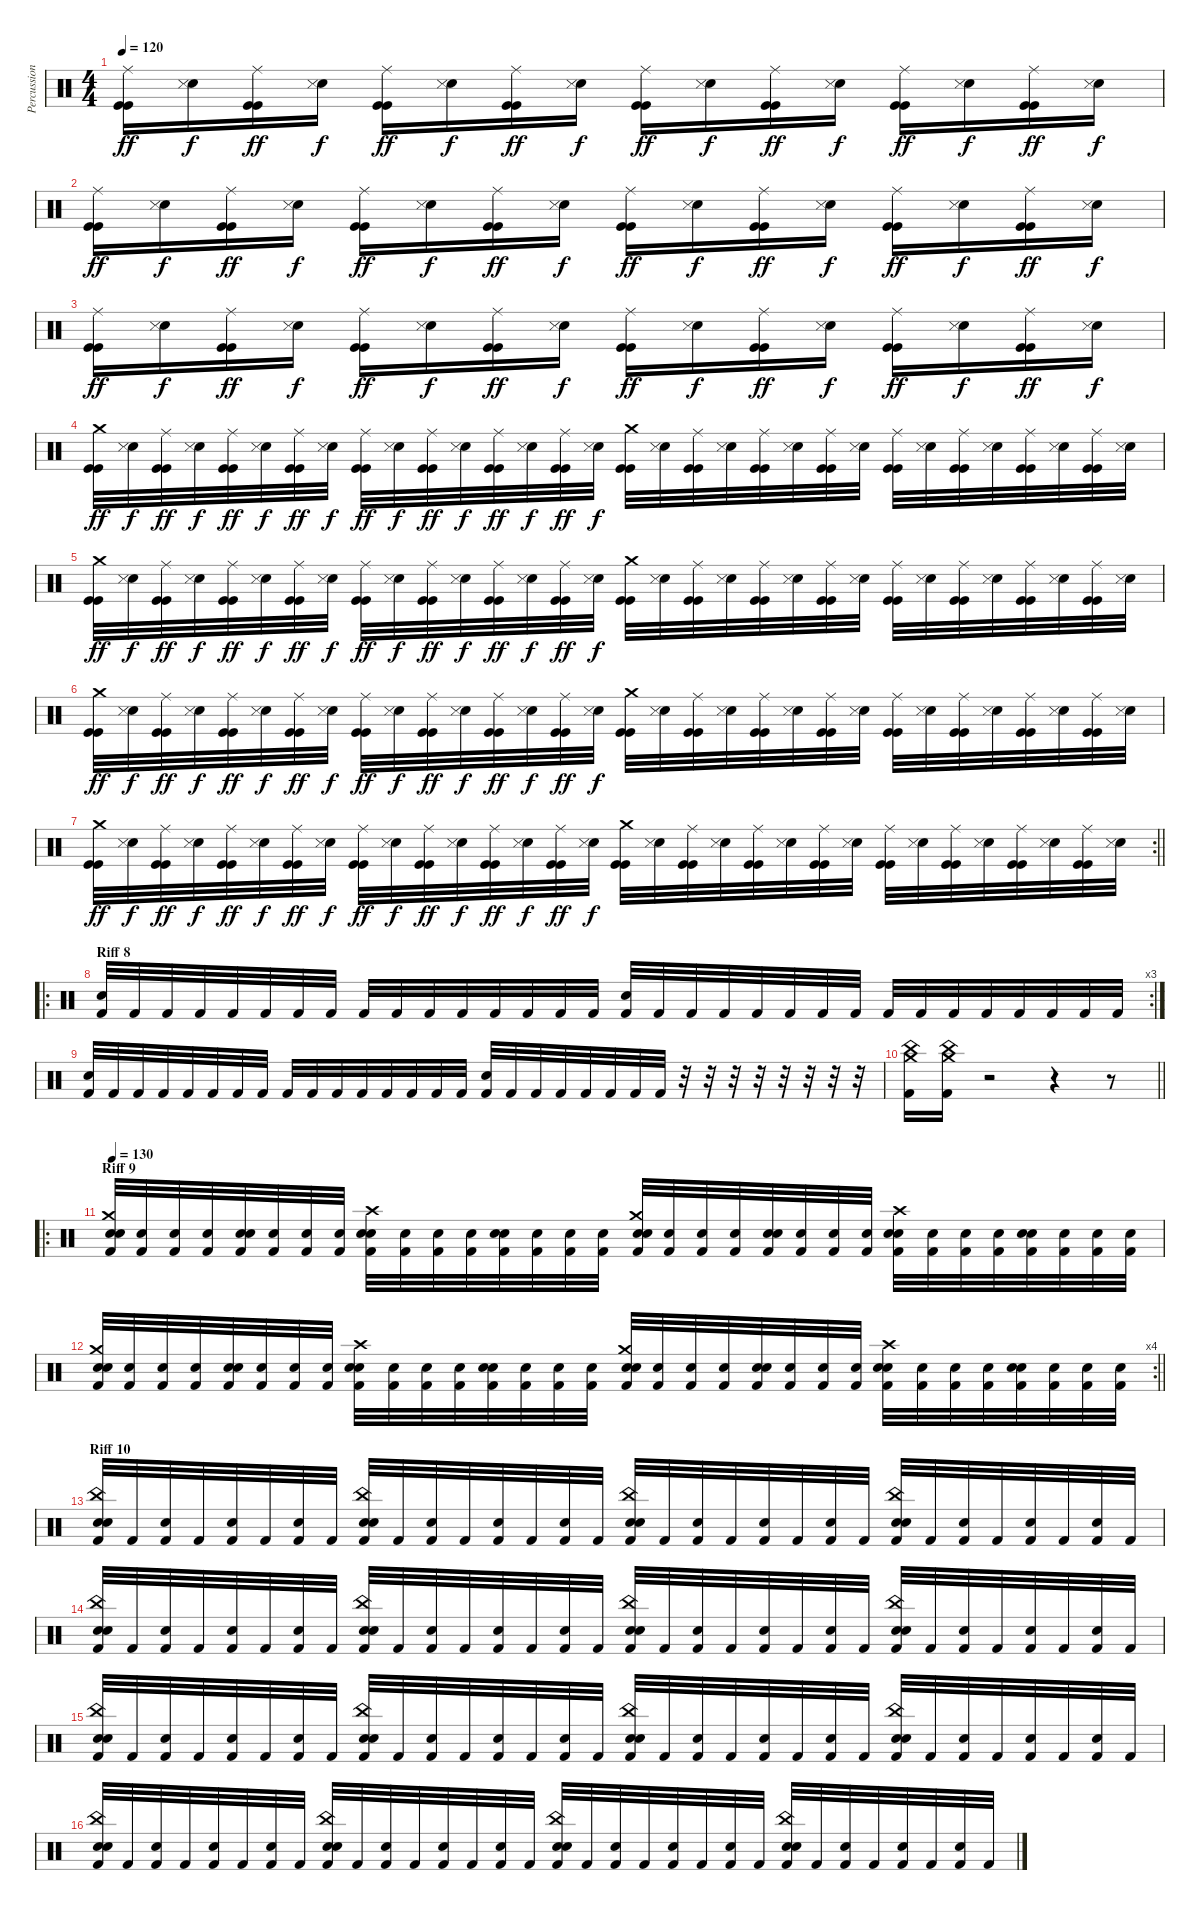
\track ("Percussions" "Percussion") {instrument percussion}
\staff {score}
\articulation defaults
\ts (4 4)
\tempo 120
\clef neutral
\ks c
("Ride (middle)" "Kick (hit)" "Kick (hit)").16{dy ff} ("Electric Snare (hit)" "Snare (side stick) 3").16{dy f} ("Ride (middle)" "Kick (hit)" "Kick (hit)").16{dy ff} ("Electric Snare (hit)" "Snare (side stick) 3").16{dy f} ("Ride (middle)" "Kick (hit)" "Kick (hit)").16{dy ff} ("Electric Snare (hit)" "Snare (side stick) 3").16{dy f} ("Ride (middle)" "Kick (hit)" "Kick (hit)").16{dy ff} ("Electric Snare (hit)" "Snare (side stick) 3").16{dy f} ("Ride (middle)" "Kick (hit)" "Kick (hit)").16{dy ff} ("Electric Snare (hit)" "Snare (side stick) 3").16{dy f} ("Ride (middle)" "Kick (hit)" "Kick (hit)").16{dy ff} ("Electric Snare (hit)" "Snare (side stick) 3").16{dy f} ("Ride (middle)" "Kick (hit)" "Kick (hit)").16{dy ff} ("Electric Snare (hit)" "Snare (side stick) 3").16{dy f} ("Ride (middle)" "Kick (hit)" "Kick (hit)").16{dy ff} ("Electric Snare (hit)" "Snare (side stick) 3").16{dy f} |
("Ride (middle)" "Kick (hit)" "Kick (hit)").16{dy ff} ("Electric Snare (hit)" "Snare (side stick) 3").16{dy f} ("Ride (middle)" "Kick (hit)" "Kick (hit)").16{dy ff} ("Electric Snare (hit)" "Snare (side stick) 3").16{dy f} ("Ride (middle)" "Kick (hit)" "Kick (hit)").16{dy ff} ("Electric Snare (hit)" "Snare (side stick) 3").16{dy f} ("Ride (middle)" "Kick (hit)" "Kick (hit)").16{dy ff} ("Electric Snare (hit)" "Snare (side stick) 3").16{dy f} ("Ride (middle)" "Kick (hit)" "Kick (hit)").16{dy ff} ("Electric Snare (hit)" "Snare (side stick) 3").16{dy f} ("Ride (middle)" "Kick (hit)" "Kick (hit)").16{dy ff} ("Electric Snare (hit)" "Snare (side stick) 3").16{dy f} ("Ride (middle)" "Kick (hit)" "Kick (hit)").16{dy ff} ("Electric Snare (hit)" "Snare (side stick) 3").16{dy f} ("Ride (middle)" "Kick (hit)" "Kick (hit)").16{dy ff} ("Electric Snare (hit)" "Snare (side stick) 3").16{dy f} |
("Ride (middle)" "Kick (hit)" "Kick (hit)").16{dy ff} ("Electric Snare (hit)" "Snare (side stick) 3").16{dy f} ("Ride (middle)" "Kick (hit)" "Kick (hit)").16{dy ff} ("Electric Snare (hit)" "Snare (side stick) 3").16{dy f} ("Ride (middle)" "Kick (hit)" "Kick (hit)").16{dy ff} ("Electric Snare (hit)" "Snare (side stick) 3").16{dy f} ("Ride (middle)" "Kick (hit)" "Kick (hit)").16{dy ff} ("Electric Snare (hit)" "Snare (side stick) 3").16{dy f} ("Ride (middle)" "Kick (hit)" "Kick (hit)").16{dy ff} ("Electric Snare (hit)" "Snare (side stick) 3").16{dy f} ("Ride (middle)" "Kick (hit)" "Kick (hit)").16{dy ff} ("Electric Snare (hit)" "Snare (side stick) 3").16{dy f} ("Ride (middle)" "Kick (hit)" "Kick (hit)").16{dy ff} ("Electric Snare (hit)" "Snare (side stick) 3").16{dy f} ("Ride (middle)" "Kick (hit)" "Kick (hit)").16{dy ff} ("Electric Snare (hit)" "Snare (side stick) 3").16{dy f} |
("Crash medium (hit)" "Kick (hit)" "Kick (hit)").32{dy ff} ("Electric Snare (hit)" "Snare (side stick) 3").32{dy f} ("Ride (middle)" "Kick (hit)" "Kick (hit)").32{dy ff} ("Electric Snare (hit)" "Snare (side stick) 3").32{dy f} ("Ride (middle)" "Kick (hit)" "Kick (hit)").32{dy ff} ("Electric Snare (hit)" "Snare (side stick) 3").32{dy f} ("Ride (middle)" "Kick (hit)" "Kick (hit)").32{dy ff} ("Electric Snare (hit)" "Snare (side stick) 3").32{dy f} ("Ride (middle)" "Kick (hit)" "Kick (hit)").32{dy ff} ("Electric Snare (hit)" "Snare (side stick) 3").32{dy f} ("Ride (middle)" "Kick (hit)" "Kick (hit)").32{dy ff} ("Electric Snare (hit)" "Snare (side stick) 3").32{dy f} ("Ride (middle)" "Kick (hit)" "Kick (hit)").32{dy ff} ("Electric Snare (hit)" "Snare (side stick) 3").32{dy f} ("Ride (middle)" "Kick (hit)" "Kick (hit)").32{dy ff} ("Electric Snare (hit)" "Snare (side stick) 3").32{dy f} ("Crash medium (hit)" "Kick (hit)" "Kick (hit)").32 ("Electric Snare (hit)" "Snare (side stick) 3").32 ("Ride (middle)" "Kick (hit)" "Kick (hit)").32 ("Electric Snare (hit)" "Snare (side stick) 3").32 ("Ride (middle)" "Kick (hit)" "Kick (hit)").32 ("Electric Snare (hit)" "Snare (side stick) 3").32 ("Ride (middle)" "Kick (hit)" "Kick (hit)").32 ("Electric Snare (hit)" "Snare (side stick) 3").32 ("Ride (middle)" "Kick (hit)" "Kick (hit)").32 ("Electric Snare (hit)" "Snare (side stick) 3").32 ("Ride (middle)" "Kick (hit)" "Kick (hit)").32 ("Electric Snare (hit)" "Snare (side stick) 3").32 ("Ride (middle)" "Kick (hit)" "Kick (hit)").32 ("Electric Snare (hit)" "Snare (side stick) 3").32 ("Ride (middle)" "Kick (hit)" "Kick (hit)").32 ("Electric Snare (hit)" "Snare (side stick) 3").32 |
("Crash medium (hit)" "Kick (hit)" "Kick (hit)").32{dy ff} ("Electric Snare (hit)" "Snare (side stick) 3").32{dy f} ("Ride (middle)" "Kick (hit)" "Kick (hit)").32{dy ff} ("Electric Snare (hit)" "Snare (side stick) 3").32{dy f} ("Ride (middle)" "Kick (hit)" "Kick (hit)").32{dy ff} ("Electric Snare (hit)" "Snare (side stick) 3").32{dy f} ("Ride (middle)" "Kick (hit)" "Kick (hit)").32{dy ff} ("Electric Snare (hit)" "Snare (side stick) 3").32{dy f} ("Ride (middle)" "Kick (hit)" "Kick (hit)").32{dy ff} ("Electric Snare (hit)" "Snare (side stick) 3").32{dy f} ("Ride (middle)" "Kick (hit)" "Kick (hit)").32{dy ff} ("Electric Snare (hit)" "Snare (side stick) 3").32{dy f} ("Ride (middle)" "Kick (hit)" "Kick (hit)").32{dy ff} ("Electric Snare (hit)" "Snare (side stick) 3").32{dy f} ("Ride (middle)" "Kick (hit)" "Kick (hit)").32{dy ff} ("Electric Snare (hit)" "Snare (side stick) 3").32{dy f} ("Crash medium (hit)" "Kick (hit)" "Kick (hit)").32 ("Electric Snare (hit)" "Snare (side stick) 3").32 ("Ride (middle)" "Kick (hit)" "Kick (hit)").32 ("Electric Snare (hit)" "Snare (side stick) 3").32 ("Ride (middle)" "Kick (hit)" "Kick (hit)").32 ("Electric Snare (hit)" "Snare (side stick) 3").32 ("Ride (middle)" "Kick (hit)" "Kick (hit)").32 ("Electric Snare (hit)" "Snare (side stick) 3").32 ("Ride (middle)" "Kick (hit)" "Kick (hit)").32 ("Electric Snare (hit)" "Snare (side stick) 3").32 ("Ride (middle)" "Kick (hit)" "Kick (hit)").32 ("Electric Snare (hit)" "Snare (side stick) 3").32 ("Ride (middle)" "Kick (hit)" "Kick (hit)").32 ("Electric Snare (hit)" "Snare (side stick) 3").32 ("Ride (middle)" "Kick (hit)" "Kick (hit)").32 ("Electric Snare (hit)" "Snare (side stick) 3").32 |
("Crash medium (hit)" "Kick (hit)" "Kick (hit)").32{dy ff} ("Electric Snare (hit)" "Snare (side stick) 3").32{dy f} ("Ride (middle)" "Kick (hit)" "Kick (hit)").32{dy ff} ("Electric Snare (hit)" "Snare (side stick) 3").32{dy f} ("Ride (middle)" "Kick (hit)" "Kick (hit)").32{dy ff} ("Electric Snare (hit)" "Snare (side stick) 3").32{dy f} ("Ride (middle)" "Kick (hit)" "Kick (hit)").32{dy ff} ("Electric Snare (hit)" "Snare (side stick) 3").32{dy f} ("Ride (middle)" "Kick (hit)" "Kick (hit)").32{dy ff} ("Electric Snare (hit)" "Snare (side stick) 3").32{dy f} ("Ride (middle)" "Kick (hit)" "Kick (hit)").32{dy ff} ("Electric Snare (hit)" "Snare (side stick) 3").32{dy f} ("Ride (middle)" "Kick (hit)" "Kick (hit)").32{dy ff} ("Electric Snare (hit)" "Snare (side stick) 3").32{dy f} ("Ride (middle)" "Kick (hit)" "Kick (hit)").32{dy ff} ("Electric Snare (hit)" "Snare (side stick) 3").32{dy f} ("Crash medium (hit)" "Kick (hit)" "Kick (hit)").32 ("Electric Snare (hit)" "Snare (side stick) 3").32 ("Ride (middle)" "Kick (hit)" "Kick (hit)").32 ("Electric Snare (hit)" "Snare (side stick) 3").32 ("Ride (middle)" "Kick (hit)" "Kick (hit)").32 ("Electric Snare (hit)" "Snare (side stick) 3").32 ("Ride (middle)" "Kick (hit)" "Kick (hit)").32 ("Electric Snare (hit)" "Snare (side stick) 3").32 ("Ride (middle)" "Kick (hit)" "Kick (hit)").32 ("Electric Snare (hit)" "Snare (side stick) 3").32 ("Ride (middle)" "Kick (hit)" "Kick (hit)").32 ("Electric Snare (hit)" "Snare (side stick) 3").32 ("Ride (middle)" "Kick (hit)" "Kick (hit)").32 ("Electric Snare (hit)" "Snare (side stick) 3").32 ("Ride (middle)" "Kick (hit)" "Kick (hit)").32 ("Electric Snare (hit)" "Snare (side stick) 3").32 |
\rc 2
\barLineRight lightlight
("Crash medium (hit)" "Kick (hit)" "Kick (hit)").32{dy ff} ("Electric Snare (hit)" "Snare (side stick) 3").32{dy f} ("Ride (middle)" "Kick (hit)" "Kick (hit)").32{dy ff} ("Electric Snare (hit)" "Snare (side stick) 3").32{dy f} ("Ride (middle)" "Kick (hit)" "Kick (hit)").32{dy ff} ("Electric Snare (hit)" "Snare (side stick) 3").32{dy f} ("Ride (middle)" "Kick (hit)" "Kick (hit)").32{dy ff} ("Electric Snare (hit)" "Snare (side stick) 3").32{dy f} ("Ride (middle)" "Kick (hit)" "Kick (hit)").32{dy ff} ("Electric Snare (hit)" "Snare (side stick) 3").32{dy f} ("Ride (middle)" "Kick (hit)" "Kick (hit)").32{dy ff} ("Electric Snare (hit)" "Snare (side stick) 3").32{dy f} ("Ride (middle)" "Kick (hit)" "Kick (hit)").32{dy ff} ("Electric Snare (hit)" "Snare (side stick) 3").32{dy f} ("Ride (middle)" "Kick (hit)" "Kick (hit)").32{dy ff} ("Electric Snare (hit)" "Snare (side stick) 3").32{dy f} ("Crash medium (hit)" "Kick (hit)" "Kick (hit)").32 ("Electric Snare (hit)" "Snare (side stick) 3").32 ("Ride (middle)" "Kick (hit)" "Kick (hit)").32 ("Electric Snare (hit)" "Snare (side stick) 3").32 ("Ride (middle)" "Kick (hit)" "Kick (hit)").32 ("Electric Snare (hit)" "Snare (side stick) 3").32 ("Ride (middle)" "Kick (hit)" "Kick (hit)").32 ("Electric Snare (hit)" "Snare (side stick) 3").32 ("Ride (middle)" "Kick (hit)" "Kick (hit)").32 ("Electric Snare (hit)" "Snare (side stick) 3").32 ("Ride (middle)" "Kick (hit)" "Kick (hit)").32 ("Electric Snare (hit)" "Snare (side stick) 3").32 ("Ride (middle)" "Kick (hit)" "Kick (hit)").32 ("Electric Snare (hit)" "Snare (side stick) 3").32 ("Ride (middle)" "Kick (hit)" "Kick (hit)").32 ("Electric Snare (hit)" "Snare (side stick) 3").32 |
\ro
\rc 3
\section ("" "Riff 8")
("Electric Snare (hit)" "Kick (hit) 2").32 "Kick (hit) 2".32 "Kick (hit) 2".32 "Kick (hit) 2".32 "Kick (hit) 2".32 "Kick (hit) 2".32 "Kick (hit) 2".32 "Kick (hit) 2".32 "Kick (hit) 2".32 "Kick (hit) 2".32 "Kick (hit) 2".32 "Kick (hit) 2".32 "Kick (hit) 2".32 "Kick (hit) 2".32 "Kick (hit) 2".32 "Kick (hit) 2".32 ("Electric Snare (hit)" "Kick (hit) 2").32 "Kick (hit) 2".32 "Kick (hit) 2".32 "Kick (hit) 2".32 "Kick (hit) 2".32 "Kick (hit) 2".32 "Kick (hit) 2".32 "Kick (hit) 2".32 "Kick (hit) 2".32 "Kick (hit) 2".32 "Kick (hit) 2".32 "Kick (hit) 2".32 "Kick (hit) 2".32 "Kick (hit) 2".32 "Kick (hit) 2".32 "Kick (hit) 2".32 |
("Electric Snare (hit)" "Kick (hit) 2").32 "Kick (hit) 2".32 "Kick (hit) 2".32 "Kick (hit) 2".32 "Kick (hit) 2".32 "Kick (hit) 2".32 "Kick (hit) 2".32 "Kick (hit) 2".32 "Kick (hit) 2".32 "Kick (hit) 2".32 "Kick (hit) 2".32 "Kick (hit) 2".32 "Kick (hit) 2".32 "Kick (hit) 2".32 "Kick (hit) 2".32 "Kick (hit) 2".32 ("Electric Snare (hit)" "Kick (hit) 2").32 "Kick (hit) 2".32 "Kick (hit) 2".32 "Kick (hit) 2".32 "Kick (hit) 2".32 "Kick (hit) 2".32 "Kick (hit) 2".32 "Kick (hit) 2".32 r.32 r.32 r.32 r.32 r.32 r.32 r.32 r.32 |
\barLineRight lightlight
("China (hit)" "Crash medium (hit)" "Kick (hit) 2").16 ("China (hit)" "Crash medium (hit)" "Kick (hit) 2").16 r.2 r.4 r.8 |
\ro
\section ("" "Riff 9")
\tempo 130
("Crash medium (hit)" "Snare (hit) 2" "Electric Snare (hit)" "Kick (hit) 2").32 ("Electric Snare (hit)" "Kick (hit) 2").32 ("Electric Snare (hit)" "Kick (hit) 2").32 ("Electric Snare (hit)" "Kick (hit) 2").32 ("Snare (hit) 2" "Electric Snare (hit)" "Kick (hit) 2").32 ("Electric Snare (hit)" "Kick (hit) 2").32 ("Electric Snare (hit)" "Kick (hit) 2").32 ("Electric Snare (hit)" "Kick (hit) 2").32 ("Crash high (hit)" "Snare (hit) 2" "Electric Snare (hit)" "Kick (hit) 2").32 ("Electric Snare (hit)" "Kick (hit) 2").32 ("Electric Snare (hit)" "Kick (hit) 2").32 ("Electric Snare (hit)" "Kick (hit) 2").32 ("Snare (hit) 2" "Electric Snare (hit)" "Kick (hit) 2").32 ("Electric Snare (hit)" "Kick (hit) 2").32 ("Electric Snare (hit)" "Kick (hit) 2").32 ("Electric Snare (hit)" "Kick (hit) 2").32 ("Crash medium (hit)" "Snare (hit) 2" "Electric Snare (hit)" "Kick (hit) 2").32 ("Electric Snare (hit)" "Kick (hit) 2").32 ("Electric Snare (hit)" "Kick (hit) 2").32 ("Electric Snare (hit)" "Kick (hit) 2").32 ("Snare (hit) 2" "Electric Snare (hit)" "Kick (hit) 2").32 ("Electric Snare (hit)" "Kick (hit) 2").32 ("Electric Snare (hit)" "Kick (hit) 2").32 ("Electric Snare (hit)" "Kick (hit) 2").32 ("Crash high (hit)" "Snare (hit) 2" "Electric Snare (hit)" "Kick (hit) 2").32 ("Electric Snare (hit)" "Kick (hit) 2").32 ("Electric Snare (hit)" "Kick (hit) 2").32 ("Electric Snare (hit)" "Kick (hit) 2").32 ("Snare (hit) 2" "Electric Snare (hit)" "Kick (hit) 2").32 ("Electric Snare (hit)" "Kick (hit) 2").32 ("Electric Snare (hit)" "Kick (hit) 2").32 ("Electric Snare (hit)" "Kick (hit) 2").32 |
\rc 4
\barLineRight lightlight
("Crash medium (hit)" "Snare (hit) 2" "Electric Snare (hit)" "Kick (hit) 2").32 ("Electric Snare (hit)" "Kick (hit) 2").32 ("Electric Snare (hit)" "Kick (hit) 2").32 ("Electric Snare (hit)" "Kick (hit) 2").32 ("Snare (hit) 2" "Electric Snare (hit)" "Kick (hit) 2").32 ("Electric Snare (hit)" "Kick (hit) 2").32 ("Electric Snare (hit)" "Kick (hit) 2").32 ("Electric Snare (hit)" "Kick (hit) 2").32 ("Crash high (hit)" "Snare (hit) 2" "Electric Snare (hit)" "Kick (hit) 2").32 ("Electric Snare (hit)" "Kick (hit) 2").32 ("Electric Snare (hit)" "Kick (hit) 2").32 ("Electric Snare (hit)" "Kick (hit) 2").32 ("Snare (hit) 2" "Electric Snare (hit)" "Kick (hit) 2").32 ("Electric Snare (hit)" "Kick (hit) 2").32 ("Electric Snare (hit)" "Kick (hit) 2").32 ("Electric Snare (hit)" "Kick (hit) 2").32 ("Crash medium (hit)" "Snare (hit) 2" "Electric Snare (hit)" "Kick (hit) 2").32 ("Electric Snare (hit)" "Kick (hit) 2").32 ("Electric Snare (hit)" "Kick (hit) 2").32 ("Electric Snare (hit)" "Kick (hit) 2").32 ("Snare (hit) 2" "Electric Snare (hit)" "Kick (hit) 2").32 ("Electric Snare (hit)" "Kick (hit) 2").32 ("Electric Snare (hit)" "Kick (hit) 2").32 ("Electric Snare (hit)" "Kick (hit) 2").32 ("Crash high (hit)" "Snare (hit) 2" "Electric Snare (hit)" "Kick (hit) 2").32 ("Electric Snare (hit)" "Kick (hit) 2").32 ("Electric Snare (hit)" "Kick (hit) 2").32 ("Electric Snare (hit)" "Kick (hit) 2").32 ("Snare (hit) 2" "Electric Snare (hit)" "Kick (hit) 2").32 ("Electric Snare (hit)" "Kick (hit) 2").32 ("Electric Snare (hit)" "Kick (hit) 2").32 ("Electric Snare (hit)" "Kick (hit) 2").32 |
\section ("" "Riff 10")
("China (hit)" "Snare (hit) 2" "Electric Snare (hit)" "Kick (hit) 2").32 "Kick (hit) 2".32 ("Electric Snare (hit)" "Kick (hit) 2").32 "Kick (hit) 2".32 ("Electric Snare (hit)" "Kick (hit) 2").32 "Kick (hit) 2".32 ("Electric Snare (hit)" "Kick (hit) 2").32 "Kick (hit) 2".32 ("China (hit)" "Snare (hit) 2" "Electric Snare (hit)" "Kick (hit) 2").32 "Kick (hit) 2".32 ("Electric Snare (hit)" "Kick (hit) 2").32 "Kick (hit) 2".32 ("Electric Snare (hit)" "Kick (hit) 2").32 "Kick (hit) 2".32 ("Electric Snare (hit)" "Kick (hit) 2").32 "Kick (hit) 2".32 ("China (hit)" "Snare (hit) 2" "Electric Snare (hit)" "Kick (hit) 2").32 "Kick (hit) 2".32 ("Electric Snare (hit)" "Kick (hit) 2").32 "Kick (hit) 2".32 ("Electric Snare (hit)" "Kick (hit) 2").32 "Kick (hit) 2".32 ("Electric Snare (hit)" "Kick (hit) 2").32 "Kick (hit) 2".32 ("China (hit)" "Snare (hit) 2" "Electric Snare (hit)" "Kick (hit) 2").32 "Kick (hit) 2".32 ("Electric Snare (hit)" "Kick (hit) 2").32 "Kick (hit) 2".32 ("Electric Snare (hit)" "Kick (hit) 2").32 "Kick (hit) 2".32 ("Electric Snare (hit)" "Kick (hit) 2").32 "Kick (hit) 2".32 |
("China (hit)" "Snare (hit) 2" "Electric Snare (hit)" "Kick (hit) 2").32 "Kick (hit) 2".32 ("Electric Snare (hit)" "Kick (hit) 2").32 "Kick (hit) 2".32 ("Electric Snare (hit)" "Kick (hit) 2").32 "Kick (hit) 2".32 ("Electric Snare (hit)" "Kick (hit) 2").32 "Kick (hit) 2".32 ("China (hit)" "Snare (hit) 2" "Electric Snare (hit)" "Kick (hit) 2").32 "Kick (hit) 2".32 ("Electric Snare (hit)" "Kick (hit) 2").32 "Kick (hit) 2".32 ("Electric Snare (hit)" "Kick (hit) 2").32 "Kick (hit) 2".32 ("Electric Snare (hit)" "Kick (hit) 2").32 "Kick (hit) 2".32 ("China (hit)" "Snare (hit) 2" "Electric Snare (hit)" "Kick (hit) 2").32 "Kick (hit) 2".32 ("Electric Snare (hit)" "Kick (hit) 2").32 "Kick (hit) 2".32 ("Electric Snare (hit)" "Kick (hit) 2").32 "Kick (hit) 2".32 ("Electric Snare (hit)" "Kick (hit) 2").32 "Kick (hit) 2".32 ("China (hit)" "Snare (hit) 2" "Electric Snare (hit)" "Kick (hit) 2").32 "Kick (hit) 2".32 ("Electric Snare (hit)" "Kick (hit) 2").32 "Kick (hit) 2".32 ("Electric Snare (hit)" "Kick (hit) 2").32 "Kick (hit) 2".32 ("Electric Snare (hit)" "Kick (hit) 2").32 "Kick (hit) 2".32 |
("China (hit)" "Snare (hit) 2" "Electric Snare (hit)" "Kick (hit) 2").32 "Kick (hit) 2".32 ("Electric Snare (hit)" "Kick (hit) 2").32 "Kick (hit) 2".32 ("Electric Snare (hit)" "Kick (hit) 2").32 "Kick (hit) 2".32 ("Electric Snare (hit)" "Kick (hit) 2").32 "Kick (hit) 2".32 ("China (hit)" "Snare (hit) 2" "Electric Snare (hit)" "Kick (hit) 2").32 "Kick (hit) 2".32 ("Electric Snare (hit)" "Kick (hit) 2").32 "Kick (hit) 2".32 ("Electric Snare (hit)" "Kick (hit) 2").32 "Kick (hit) 2".32 ("Electric Snare (hit)" "Kick (hit) 2").32 "Kick (hit) 2".32 ("China (hit)" "Snare (hit) 2" "Electric Snare (hit)" "Kick (hit) 2").32 "Kick (hit) 2".32 ("Electric Snare (hit)" "Kick (hit) 2").32 "Kick (hit) 2".32 ("Electric Snare (hit)" "Kick (hit) 2").32 "Kick (hit) 2".32 ("Electric Snare (hit)" "Kick (hit) 2").32 "Kick (hit) 2".32 ("China (hit)" "Snare (hit) 2" "Electric Snare (hit)" "Kick (hit) 2").32 "Kick (hit) 2".32 ("Electric Snare (hit)" "Kick (hit) 2").32 "Kick (hit) 2".32 ("Electric Snare (hit)" "Kick (hit) 2").32 "Kick (hit) 2".32 ("Electric Snare (hit)" "Kick (hit) 2").32 "Kick (hit) 2".32 |
("China (hit)" "Snare (hit) 2" "Electric Snare (hit)" "Kick (hit) 2").32 "Kick (hit) 2".32 ("Electric Snare (hit)" "Kick (hit) 2").32 "Kick (hit) 2".32 ("Electric Snare (hit)" "Kick (hit) 2").32 "Kick (hit) 2".32 ("Electric Snare (hit)" "Kick (hit) 2").32 "Kick (hit) 2".32 ("China (hit)" "Snare (hit) 2" "Electric Snare (hit)" "Kick (hit) 2").32 "Kick (hit) 2".32 ("Electric Snare (hit)" "Kick (hit) 2").32 "Kick (hit) 2".32 ("Electric Snare (hit)" "Kick (hit) 2").32 "Kick (hit) 2".32 ("Electric Snare (hit)" "Kick (hit) 2").32 "Kick (hit) 2".32 ("China (hit)" "Snare (hit) 2" "Electric Snare (hit)" "Kick (hit) 2").32 "Kick (hit) 2".32 ("Electric Snare (hit)" "Kick (hit) 2").32 "Kick (hit) 2".32 ("Electric Snare (hit)" "Kick (hit) 2").32 "Kick (hit) 2".32 ("Electric Snare (hit)" "Kick (hit) 2").32 "Kick (hit) 2".32 ("China (hit)" "Snare (hit) 2" "Electric Snare (hit)" "Kick (hit) 2").32 "Kick (hit) 2".32 ("Electric Snare (hit)" "Kick (hit) 2").32 "Kick (hit) 2".32 ("Electric Snare (hit)" "Kick (hit) 2").32 "Kick (hit) 2".32 ("Electric Snare (hit)" "Kick (hit) 2").32 "Kick (hit) 2".32
